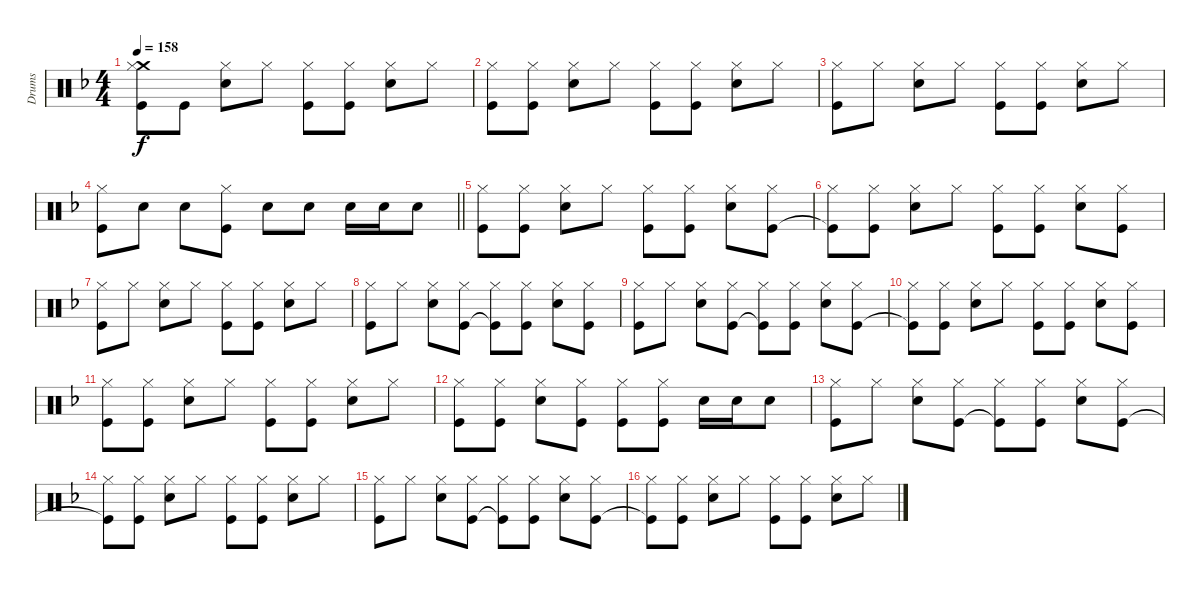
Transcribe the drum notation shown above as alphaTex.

\track ("Drums" "Drums") {instrument percussion}
\staff {score}
\articulation defaults
\ts (4 4)
\tempo 158
\clef neutral
\ks f
("Crash medium (hit)" "Hi-Hat (closed)" "Kick (hit)").8{dy f} "Kick (hit)".8 ("Hi-Hat (closed)" "Snare (hit) 2").8 "Hi-Hat (closed)".8 ("Hi-Hat (closed)" "Kick (hit)").8 ("Hi-Hat (closed)" "Kick (hit)").8 ("Hi-Hat (closed)" "Snare (hit) 2").8 "Hi-Hat (closed)".8 |
("Hi-Hat (closed)" "Kick (hit)").8 ("Hi-Hat (closed)" "Kick (hit)").8 ("Hi-Hat (closed)" "Snare (hit) 2").8 "Hi-Hat (closed)".8 ("Hi-Hat (closed)" "Kick (hit)").8 ("Hi-Hat (closed)" "Kick (hit)").8 ("Hi-Hat (closed)" "Snare (hit) 2").8 "Hi-Hat (closed)".8 |
("Hi-Hat (closed)" "Kick (hit)").8 "Hi-Hat (closed)".8 ("Hi-Hat (closed)" "Snare (hit) 2").8 "Hi-Hat (closed)".8 ("Hi-Hat (closed)" "Kick (hit)").8 ("Hi-Hat (closed)" "Kick (hit)").8 ("Hi-Hat (closed)" "Snare (hit) 2").8 "Hi-Hat (closed)".8 |
\barLineRight lightlight
("Hi-Hat (closed)" "Kick (hit)").8 "Snare (hit) 2".8 "Snare (hit) 2".8 ("Hi-Hat (closed)" "Kick (hit)").8 "Snare (hit) 2".8 "Snare (hit) 2".8 "Snare (hit) 2".16 "Snare (hit) 2".16 "Snare (hit) 2".8 |
\section ("" "")
("Hi-Hat (closed)" "Kick (hit)").8 ("Hi-Hat (closed)" "Kick (hit)").8 ("Hi-Hat (closed)" "Snare (hit) 2").8 "Hi-Hat (closed)".8 ("Hi-Hat (closed)" "Kick (hit)").8 ("Hi-Hat (closed)" "Kick (hit)").8 ("Hi-Hat (closed)" "Snare (hit) 2").8 ("Hi-Hat (closed)" "Kick (hit)").8 |
("Hi-Hat (closed)" "Kick (hit)"{t}).8 ("Hi-Hat (closed)" "Kick (hit)").8 ("Hi-Hat (closed)" "Snare (hit) 2").8 "Hi-Hat (closed)".8 ("Hi-Hat (closed)" "Kick (hit)").8 ("Hi-Hat (closed)" "Kick (hit)").8 ("Hi-Hat (closed)" "Snare (hit) 2").8 ("Hi-Hat (closed)" "Kick (hit)").8 |
("Hi-Hat (closed)" "Kick (hit)").8 "Hi-Hat (closed)".8 ("Hi-Hat (closed)" "Snare (hit) 2").8 "Hi-Hat (closed)".8 ("Hi-Hat (closed)" "Kick (hit)").8 ("Hi-Hat (closed)" "Kick (hit)").8 ("Hi-Hat (closed)" "Snare (hit) 2").8 "Hi-Hat (closed)".8 |
("Hi-Hat (closed)" "Kick (hit)").8 "Hi-Hat (closed)".8 ("Hi-Hat (closed)" "Snare (hit) 2").8 ("Hi-Hat (closed)" "Kick (hit)").8 ("Hi-Hat (closed)" "Kick (hit)"{t}).8 ("Hi-Hat (closed)" "Kick (hit)").8 ("Hi-Hat (closed)" "Snare (hit) 2").8 ("Hi-Hat (closed)" "Kick (hit)").8 |
("Hi-Hat (closed)" "Kick (hit)").8 "Hi-Hat (closed)".8 ("Hi-Hat (closed)" "Snare (hit) 2").8 ("Hi-Hat (closed)" "Kick (hit)").8 ("Hi-Hat (closed)" "Kick (hit)"{t}).8 ("Hi-Hat (closed)" "Kick (hit)").8 ("Hi-Hat (closed)" "Snare (hit) 2").8 ("Hi-Hat (closed)" "Kick (hit)").8 |
("Hi-Hat (closed)" "Kick (hit)"{t}).8 ("Hi-Hat (closed)" "Kick (hit)").8 ("Hi-Hat (closed)" "Snare (hit) 2").8 "Hi-Hat (closed)".8 ("Hi-Hat (closed)" "Kick (hit)").8 ("Hi-Hat (closed)" "Kick (hit)").8 ("Hi-Hat (closed)" "Snare (hit) 2").8 ("Hi-Hat (closed)" "Kick (hit)").8 |
("Hi-Hat (closed)" "Kick (hit)").8 ("Hi-Hat (closed)" "Kick (hit)").8 ("Hi-Hat (closed)" "Snare (hit) 2").8 "Hi-Hat (closed)".8 ("Hi-Hat (closed)" "Kick (hit)").8 ("Hi-Hat (closed)" "Kick (hit)").8 ("Hi-Hat (closed)" "Snare (hit) 2").8 "Hi-Hat (closed)".8 |
("Hi-Hat (closed)" "Kick (hit)").8 ("Hi-Hat (closed)" "Kick (hit)").8 ("Hi-Hat (closed)" "Snare (hit) 2").8 ("Hi-Hat (closed)" "Kick (hit)").8 ("Hi-Hat (closed)" "Kick (hit)").8 ("Hi-Hat (closed)" "Kick (hit)").8 "Snare (hit) 2".16 "Snare (hit) 2".16 "Snare (hit) 2".8 |
("Hi-Hat (closed)" "Kick (hit)").8 "Hi-Hat (closed)".8 ("Hi-Hat (closed)" "Snare (hit) 2").8 ("Hi-Hat (closed)" "Kick (hit)").8 ("Hi-Hat (closed)" "Kick (hit)"{t}).8 ("Hi-Hat (closed)" "Kick (hit)").8 ("Hi-Hat (closed)" "Snare (hit) 2").8 ("Hi-Hat (closed)" "Kick (hit)").8 |
("Hi-Hat (closed)" "Kick (hit)"{t}).8 ("Hi-Hat (closed)" "Kick (hit)").8 ("Hi-Hat (closed)" "Snare (hit) 2").8 "Hi-Hat (closed)".8 ("Hi-Hat (closed)" "Kick (hit)").8 ("Hi-Hat (closed)" "Kick (hit)").8 ("Hi-Hat (closed)" "Snare (hit) 2").8 "Hi-Hat (closed)".8 |
("Hi-Hat (closed)" "Kick (hit)").8 "Hi-Hat (closed)".8 ("Hi-Hat (closed)" "Snare (hit) 2").8 ("Hi-Hat (closed)" "Kick (hit)").8 ("Hi-Hat (closed)" "Kick (hit)"{t}).8 ("Hi-Hat (closed)" "Kick (hit)").8 ("Hi-Hat (closed)" "Snare (hit) 2").8 ("Hi-Hat (closed)" "Kick (hit)").8 |
("Hi-Hat (closed)" "Kick (hit)"{t}).8 ("Hi-Hat (closed)" "Kick (hit)").8 ("Hi-Hat (closed)" "Snare (hit) 2").8 "Hi-Hat (closed)".8 ("Hi-Hat (closed)" "Kick (hit)").8 ("Hi-Hat (closed)" "Kick (hit)").8 ("Hi-Hat (closed)" "Snare (hit) 2").8 "Hi-Hat (closed)".8
